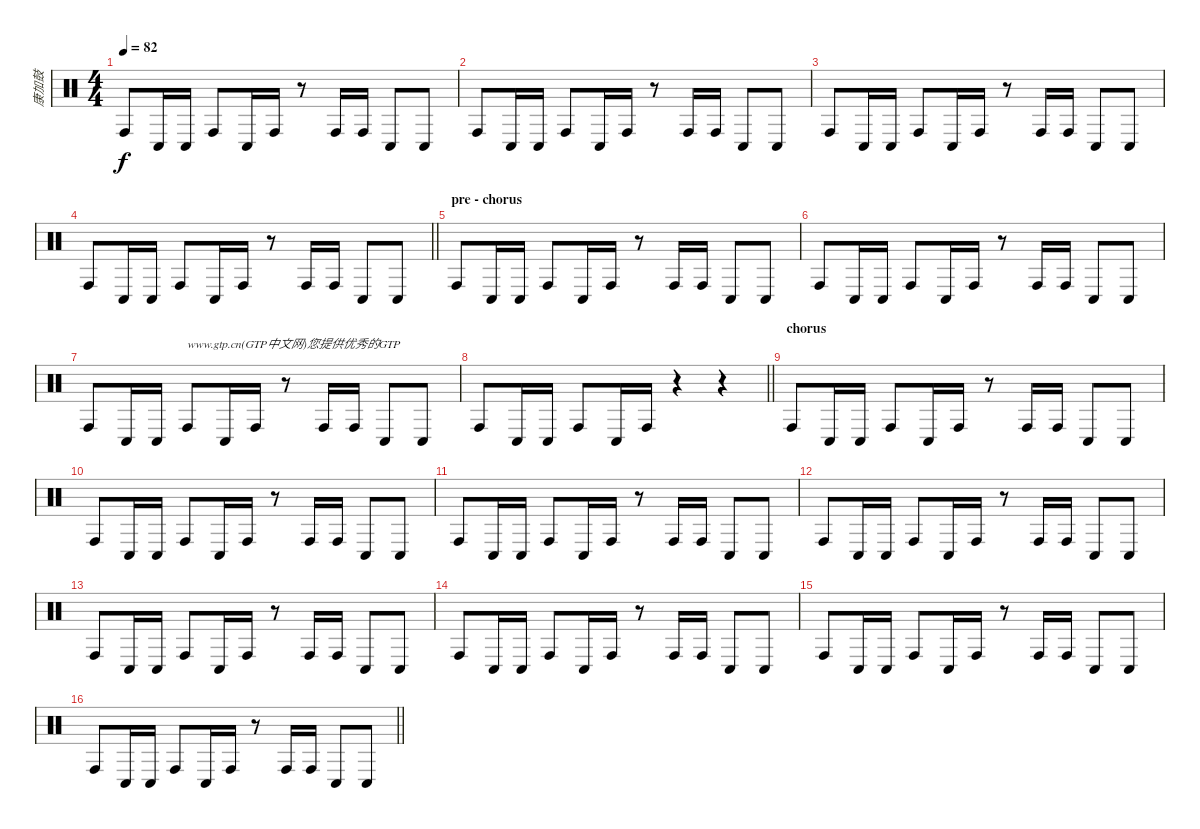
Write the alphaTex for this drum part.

\track ("康加鼓" "康加鼓") {instrument percussion}
\staff {score}
\articulation defaults
\ts (4 4)
\tempo 82
\clef neutral
\ks c "Conga high (hit)".8{dy f} "Conga low (hit)".16 "Conga low (hit)".16 "Conga high (hit)".8 "Conga low (hit)".16 "Conga high (hit)".16
r.8 "Conga high (hit)".16 "Conga high (hit)".16 "Conga low (hit)".8 "Conga low (hit)".8 |
"Conga high (hit)".8 "Conga low (hit)".16 "Conga low (hit)".16 "Conga high (hit)".8 "Conga low (hit)".16 "Conga high (hit)".16 r.8 "Conga high (hit)".16 "Conga high (hit)".16 "Conga low (hit)".8 "Conga low (hit)".8 |
"Conga high (hit)".8 "Conga low (hit)".16 "Conga low (hit)".16 "Conga high (hit)".8 "Conga low (hit)".16 "Conga high (hit)".16 r.8 "Conga high (hit)".16 "Conga high (hit)".16 "Conga low (hit)".8 "Conga low (hit)".8 |
\barLineRight lightlight "Conga high (hit)".8 "Conga low (hit)".16 "Conga low (hit)".16 "Conga high (hit)".8 "Conga low (hit)".16 "Conga high (hit)".16
r.8 "Conga high (hit)".16 "Conga high (hit)".16 "Conga low (hit)".8 "Conga low (hit)".8 |
\section ("" "pre - chorus")
"Conga high (hit)".8 "Conga low (hit)".16 "Conga low (hit)".16 "Conga high (hit)".8 "Conga low (hit)".16 "Conga high (hit)".16 r.8 "Conga high (hit)".16 "Conga high (hit)".16 "Conga low (hit)".8 "Conga low (hit)".8 |
"Conga high (hit)".8 "Conga low (hit)".16 "Conga low (hit)".16 "Conga high (hit)".8 "Conga low (hit)".16 "Conga high (hit)".16 r.8 "Conga high (hit)".16 "Conga high (hit)".16 "Conga low (hit)".8 "Conga low (hit)".8 |
"Conga high (hit)".8 "Conga low (hit)".16 "Conga low (hit)".16 "Conga high (hit)".8{txt "www.gtp.cn(GTP中文网)您提供优秀的GTP"} "Conga low (hit)".16 "Conga high (hit)".16 r.8 "Conga high (hit)".16 "Conga high (hit)".16 "Conga low (hit)".8 "Conga low (hit)".8 |
\barLineRight lightlight "Conga high (hit)".8 "Conga low (hit)".16 "Conga low (hit)".16 "Conga high (hit)".8 "Conga low (hit)".16 "Conga high (hit)".16
r.4 r.4 |
\section ("" "chorus")
"Conga high (hit)".8 "Conga low (hit)".16 "Conga low (hit)".16 "Conga high (hit)".8 "Conga low (hit)".16 "Conga high (hit)".16 r.8 "Conga high (hit)".16 "Conga high (hit)".16 "Conga low (hit)".8 "Conga low (hit)".8 |
"Conga high (hit)".8 "Conga low (hit)".16 "Conga low (hit)".16 "Conga high (hit)".8 "Conga low (hit)".16 "Conga high (hit)".16 r.8 "Conga high (hit)".16 "Conga high (hit)".16 "Conga low (hit)".8 "Conga low (hit)".8 |
"Conga high (hit)".8 "Conga low (hit)".16 "Conga low (hit)".16 "Conga high (hit)".8 "Conga low (hit)".16 "Conga high (hit)".16 r.8 "Conga high (hit)".16 "Conga high (hit)".16 "Conga low (hit)".8 "Conga low (hit)".8 |
"Conga high (hit)".8 "Conga low (hit)".16 "Conga low (hit)".16 "Conga high (hit)".8 "Conga low (hit)".16 "Conga high (hit)".16 r.8 "Conga high (hit)".16 "Conga high (hit)".16 "Conga low (hit)".8 "Conga low (hit)".8 |
"Conga high (hit)".8 "Conga low (hit)".16 "Conga low (hit)".16 "Conga high (hit)".8 "Conga low (hit)".16 "Conga high (hit)".16 r.8 "Conga high (hit)".16 "Conga high (hit)".16 "Conga low (hit)".8 "Conga low (hit)".8 |
"Conga high (hit)".8 "Conga low (hit)".16 "Conga low (hit)".16 "Conga high (hit)".8 "Conga low (hit)".16 "Conga high (hit)".16 r.8 "Conga high (hit)".16 "Conga high (hit)".16 "Conga low (hit)".8 "Conga low (hit)".8 |
"Conga high (hit)".8 "Conga low (hit)".16 "Conga low (hit)".16 "Conga high (hit)".8 "Conga low (hit)".16 "Conga high (hit)".16 r.8 "Conga high (hit)".16 "Conga high (hit)".16 "Conga low (hit)".8 "Conga low (hit)".8 |
\barLineRight lightlight "Conga high (hit)".8 "Conga low (hit)".16 "Conga low (hit)".16 "Conga high (hit)".8 "Conga low (hit)".16 "Conga high (hit)".16
r.8 "Conga high (hit)".16 "Conga high (hit)".16 "Conga low (hit)".8 "Conga low (hit)".8
